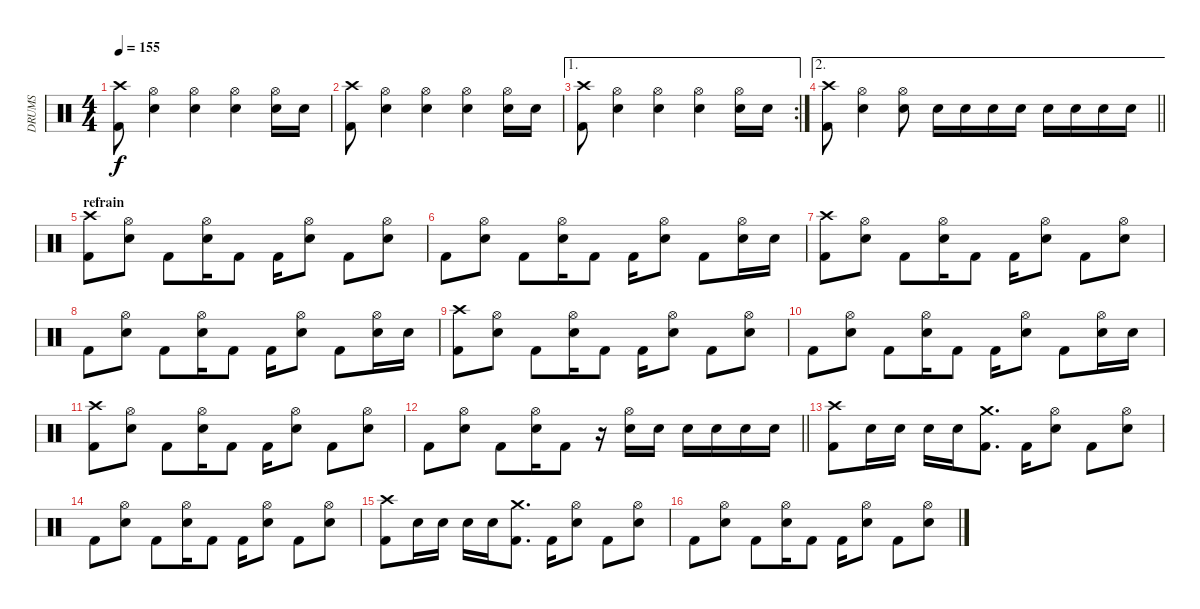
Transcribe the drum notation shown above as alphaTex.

\track ("DRUMS" "DRUMS") {instrument percussion}
\staff {score}
\articulation defaults
\ts (4 4)
\tempo 155
\clef neutral
\ks c
("Crash high (hit)" "Kick (hit) 2").8{dy f} ("Hi-Hat (open)" "Electric Snare (hit)").4 ("Hi-Hat (open)" "Electric Snare (hit)").4 ("Hi-Hat (open)" "Electric Snare (hit)").4 ("Hi-Hat (open)" "Electric Snare (hit)").16 "Electric Snare (hit)".16 |
("Crash high (hit)" "Kick (hit) 2").8 ("Hi-Hat (open)" "Electric Snare (hit)").4 ("Hi-Hat (open)" "Electric Snare (hit)").4 ("Hi-Hat (open)" "Electric Snare (hit)").4 ("Hi-Hat (open)" "Electric Snare (hit)").16 "Electric Snare (hit)".16 |
\ae 1
\rc 2
("Crash high (hit)" "Kick (hit) 2").8 ("Hi-Hat (open)" "Electric Snare (hit)").4 ("Hi-Hat (open)" "Electric Snare (hit)").4 ("Hi-Hat (open)" "Electric Snare (hit)").4 ("Hi-Hat (open)" "Electric Snare (hit)").16 "Electric Snare (hit)".16 |
\ae 2
\barLineRight lightlight
("Crash high (hit)" "Kick (hit) 2").8 ("Hi-Hat (open)" "Electric Snare (hit)").4 ("Hi-Hat (open)" "Electric Snare (hit)").8 "Electric Snare (hit)".16 "Electric Snare (hit)".16 "Electric Snare (hit)".16 "Electric Snare (hit)".16 "Electric Snare (hit)".16 "Electric Snare (hit)".16 "Electric Snare (hit)".16 "Electric Snare (hit)".16 |
\section ("" "refrain")
("Crash high (hit)" "Kick (hit) 2").8 ("Hi-Hat (open)" "Electric Snare (hit)").8 "Kick (hit) 2".8 ("Hi-Hat (open)" "Electric Snare (hit)").16 "Kick (hit) 2".8 "Kick (hit) 2".16 ("Hi-Hat (open)" "Electric Snare (hit)").8 "Kick (hit) 2".8 ("Hi-Hat (open)" "Electric Snare (hit)").8 |
"Kick (hit) 2".8 ("Hi-Hat (open)" "Electric Snare (hit)").8 "Kick (hit) 2".8 ("Hi-Hat (open)" "Electric Snare (hit)").16 "Kick (hit) 2".8 "Kick (hit) 2".16 ("Hi-Hat (open)" "Electric Snare (hit)").8 "Kick (hit) 2".8 ("Hi-Hat (open)" "Electric Snare (hit)").16 "Electric Snare (hit)".16 |
("Crash high (hit)" "Kick (hit) 2").8 ("Hi-Hat (open)" "Electric Snare (hit)").8 "Kick (hit) 2".8 ("Hi-Hat (open)" "Electric Snare (hit)").16 "Kick (hit) 2".8 "Kick (hit) 2".16 ("Hi-Hat (open)" "Electric Snare (hit)").8 "Kick (hit) 2".8 ("Hi-Hat (open)" "Electric Snare (hit)").8 |
"Kick (hit) 2".8 ("Hi-Hat (open)" "Electric Snare (hit)").8 "Kick (hit) 2".8 ("Hi-Hat (open)" "Electric Snare (hit)").16 "Kick (hit) 2".8 "Kick (hit) 2".16 ("Hi-Hat (open)" "Electric Snare (hit)").8 "Kick (hit) 2".8 ("Hi-Hat (open)" "Electric Snare (hit)").16 "Electric Snare (hit)".16 |
("Crash high (hit)" "Kick (hit) 2").8 ("Hi-Hat (open)" "Electric Snare (hit)").8 "Kick (hit) 2".8 ("Hi-Hat (open)" "Electric Snare (hit)").16 "Kick (hit) 2".8 "Kick (hit) 2".16 ("Hi-Hat (open)" "Electric Snare (hit)").8 "Kick (hit) 2".8 ("Hi-Hat (open)" "Electric Snare (hit)").8 |
"Kick (hit) 2".8 ("Hi-Hat (open)" "Electric Snare (hit)").8 "Kick (hit) 2".8 ("Hi-Hat (open)" "Electric Snare (hit)").16 "Kick (hit) 2".8 "Kick (hit) 2".16 ("Hi-Hat (open)" "Electric Snare (hit)").8 "Kick (hit) 2".8 ("Hi-Hat (open)" "Electric Snare (hit)").16 "Electric Snare (hit)".16 |
("Crash high (hit)" "Kick (hit) 2").8 ("Hi-Hat (open)" "Electric Snare (hit)").8 "Kick (hit) 2".8 ("Hi-Hat (open)" "Electric Snare (hit)").16 "Kick (hit) 2".8 "Kick (hit) 2".16 ("Hi-Hat (open)" "Electric Snare (hit)").8 "Kick (hit) 2".8 ("Hi-Hat (open)" "Electric Snare (hit)").8 |
\barLineRight lightlight "Kick (hit) 2".8
("Hi-Hat (open)" "Electric Snare (hit)").8 "Kick (hit) 2".8 ("Hi-Hat (open)" "Electric Snare (hit)").16 "Kick (hit) 2".8 r.16 ("Hi-Hat (open)" "Electric Snare (hit)").16 "Electric Snare (hit)".16 "Electric Snare (hit)".16 "Electric Snare (hit)".16 "Electric Snare (hit)".16 "Electric Snare (hit)".16 |
\section ("" "")
("Crash high (hit)" "Kick (hit) 2").8 "Electric Snare (hit)".16 "Electric Snare (hit)".16 "Electric Snare (hit)".16 "Electric Snare (hit)".16 ("Crash medium (hit)" "Kick (hit) 2").8{d} "Kick (hit) 2".16 ("Hi-Hat (open)" "Electric Snare (hit)").8 "Kick (hit) 2".8 ("Hi-Hat (open)" "Electric Snare (hit)").8 |
"Kick (hit) 2".8 ("Hi-Hat (open)" "Electric Snare (hit)").8 "Kick (hit) 2".8 ("Hi-Hat (open)" "Electric Snare (hit)").16 "Kick (hit) 2".8 "Kick (hit) 2".16 ("Hi-Hat (open)" "Electric Snare (hit)").8 "Kick (hit) 2".8 ("Hi-Hat (open)" "Electric Snare (hit)").8 |
("Crash high (hit)" "Kick (hit) 2").8 "Electric Snare (hit)".16 "Electric Snare (hit)".16 "Electric Snare (hit)".16 "Electric Snare (hit)".16 ("Crash medium (hit)" "Kick (hit) 2").8{d} "Kick (hit) 2".16 ("Hi-Hat (open)" "Electric Snare (hit)").8 "Kick (hit) 2".8 ("Hi-Hat (open)" "Electric Snare (hit)").8 |
"Kick (hit) 2".8 ("Hi-Hat (open)" "Electric Snare (hit)").8 "Kick (hit) 2".8 ("Hi-Hat (open)" "Electric Snare (hit)").16 "Kick (hit) 2".8 "Kick (hit) 2".16 ("Hi-Hat (open)" "Electric Snare (hit)").8 "Kick (hit) 2".8 ("Hi-Hat (open)" "Electric Snare (hit)").8
